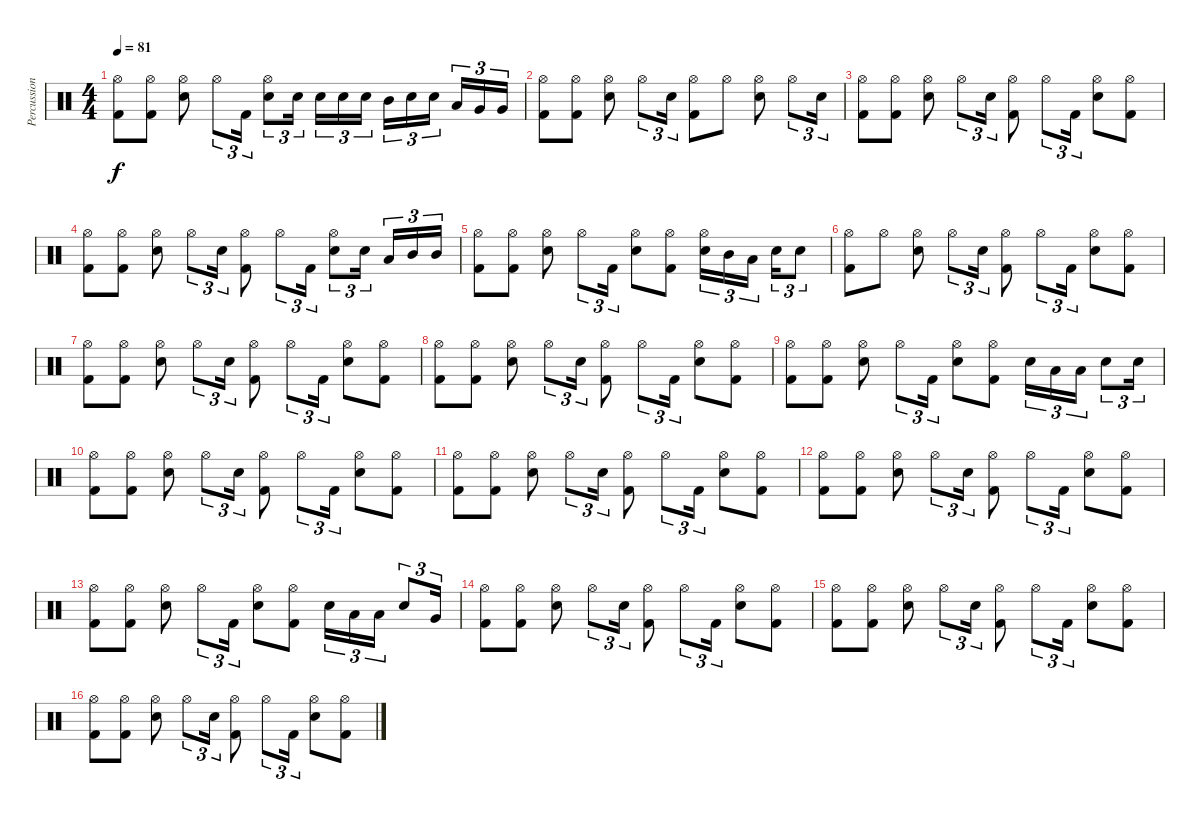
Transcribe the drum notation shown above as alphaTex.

\track ("Percussions" "Percussion") {instrument percussion}
\staff {score}
\articulation defaults
\ts (4 4)
\tempo 81
\clef neutral
\ks c
("Hi-Hat (open)" "Kick (hit) 2").8{dy f} ("Hi-Hat (open)" "Kick (hit) 2").8 ("Hi-Hat (open)" "Snare (hit) 2").8 "Hi-Hat (open)".8{tu (3 2)} "Kick (hit) 2".16{tu (3 2)} ("Hi-Hat (open)" "Snare (hit) 2").8{tu (3 2)} "Snare (hit) 2".16{tu (3 2) beam splitsecondary} "Snare (hit) 2".16{tu (3 2)} "Snare (hit) 2".16{tu (3 2)} "Snare (hit) 2".16{tu (3 2)} "Mid Tom (hit)".16{tu (3 2)} "Snare (hit) 2".16{tu (3 2)} "Snare (hit) 2".16{tu (3 2) beam splitsecondary} "Low Tom (hit)".16{tu (3 2)} "Very Low Tom (hit)".16{tu (3 2)} "Very Low Tom (hit)".16{tu (3 2)} |
("Hi-Hat (open)" "Kick (hit) 2").8 ("Hi-Hat (open)" "Kick (hit) 2").8 ("Hi-Hat (open)" "Snare (hit) 2").8 "Hi-Hat (open)".8{tu (3 2)} "Snare (hit) 2".16{tu (3 2)} ("Hi-Hat (open)" "Kick (hit) 2").8 "Hi-Hat (open)".8 ("Hi-Hat (open)" "Snare (hit) 2").8 "Hi-Hat (open)".8{tu (3 2)} "Snare (hit) 2".16{tu (3 2)} |
("Hi-Hat (open)" "Kick (hit) 2").8 ("Hi-Hat (open)" "Kick (hit) 2").8 ("Hi-Hat (open)" "Snare (hit) 2").8 "Hi-Hat (open)".8{tu (3 2)} "Snare (hit) 2".16{tu (3 2)} ("Hi-Hat (open)" "Kick (hit) 2").8 "Hi-Hat (open)".8{tu (3 2)} "Kick (hit) 2".16{tu (3 2)} ("Hi-Hat (open)" "Snare (hit) 2").8 ("Hi-Hat (open)" "Kick (hit) 2").8 |
("Hi-Hat (open)" "Kick (hit) 2").8 ("Hi-Hat (open)" "Kick (hit) 2").8 ("Hi-Hat (open)" "Snare (hit) 2").8 "Hi-Hat (open)".8{tu (3 2)} "Snare (hit) 2".16{tu (3 2)} ("Hi-Hat (open)" "Kick (hit) 2").8 "Hi-Hat (open)".8{tu (3 2)} "Kick (hit) 2".16{tu (3 2)} ("Hi-Hat (open)" "Snare (hit) 2").8{tu (3 2)} "Snare (hit) 2".16{tu (3 2) beam splitsecondary} "Low Tom (hit)".16{tu (3 2)} "Mid Tom (hit)".16{tu (3 2)} "Mid Tom (hit)".16{tu (3 2)} |
("Hi-Hat (open)" "Kick (hit) 2").8 ("Hi-Hat (open)" "Kick (hit) 2").8 ("Hi-Hat (open)" "Snare (hit) 2").8 "Hi-Hat (open)".8{tu (3 2)} "Kick (hit) 2".16{tu (3 2)} ("Hi-Hat (open)" "Snare (hit) 2").8 ("Hi-Hat (open)" "Kick (hit) 2").8 ("Hi-Hat (open)" "Snare (hit) 2").16{tu (3 2)} "Mid Tom (hit)".16{tu (3 2)} "Low Tom (hit)".16{tu (3 2) beam splitsecondary} "Snare (hit) 2".16{tu (3 2)} "Snare (hit) 2".8{tu (3 2)} |
("Hi-Hat (open)" "Kick (hit) 2").8 "Hi-Hat (open)".8 ("Hi-Hat (open)" "Snare (hit) 2").8 "Hi-Hat (open)".8{tu (3 2)} "Snare (hit) 2".16{tu (3 2)} ("Hi-Hat (open)" "Kick (hit) 2").8 "Hi-Hat (open)".8{tu (3 2)} "Kick (hit) 2".16{tu (3 2)} ("Hi-Hat (open)" "Snare (hit) 2").8 ("Hi-Hat (open)" "Kick (hit) 2").8 |
("Hi-Hat (open)" "Kick (hit) 2").8 ("Hi-Hat (open)" "Kick (hit) 2").8 ("Hi-Hat (open)" "Snare (hit) 2").8 "Hi-Hat (open)".8{tu (3 2)} "Snare (hit) 2".16{tu (3 2)} ("Hi-Hat (open)" "Kick (hit) 2").8 "Hi-Hat (open)".8{tu (3 2)} "Kick (hit) 2".16{tu (3 2)} ("Hi-Hat (open)" "Snare (hit) 2").8 ("Hi-Hat (open)" "Kick (hit) 2").8 |
("Hi-Hat (open)" "Kick (hit) 2").8 ("Hi-Hat (open)" "Kick (hit) 2").8 ("Hi-Hat (open)" "Snare (hit) 2").8 "Hi-Hat (open)".8{tu (3 2)} "Snare (hit) 2".16{tu (3 2)} ("Hi-Hat (open)" "Kick (hit) 2").8 "Hi-Hat (open)".8{tu (3 2)} "Kick (hit) 2".16{tu (3 2)} ("Hi-Hat (open)" "Snare (hit) 2").8 ("Hi-Hat (open)" "Kick (hit) 2").8 |
("Hi-Hat (open)" "Kick (hit) 2").8 ("Hi-Hat (open)" "Kick (hit) 2").8 ("Hi-Hat (open)" "Snare (hit) 2").8 "Hi-Hat (open)".8{tu (3 2)} "Kick (hit) 2".16{tu (3 2)} ("Hi-Hat (open)" "Snare (hit) 2").8 ("Hi-Hat (open)" "Kick (hit) 2").8 "Snare (hit) 2".16{tu (3 2)} "Low Tom (hit)".16{tu (3 2)} "Low Tom (hit)".16{tu (3 2)} "Snare (hit) 2".8{tu (3 2)} "Snare (hit) 2".16{tu (3 2)} |
("Hi-Hat (open)" "Kick (hit) 2").8 ("Hi-Hat (open)" "Kick (hit) 2").8 ("Hi-Hat (open)" "Snare (hit) 2").8 "Hi-Hat (open)".8{tu (3 2)} "Snare (hit) 2".16{tu (3 2)} ("Hi-Hat (open)" "Kick (hit) 2").8 "Hi-Hat (open)".8{tu (3 2)} "Kick (hit) 2".16{tu (3 2)} ("Hi-Hat (open)" "Snare (hit) 2").8 ("Hi-Hat (open)" "Kick (hit) 2").8 |
("Hi-Hat (open)" "Kick (hit) 2").8 ("Hi-Hat (open)" "Kick (hit) 2").8 ("Hi-Hat (open)" "Snare (hit) 2").8 "Hi-Hat (open)".8{tu (3 2)} "Snare (hit) 2".16{tu (3 2)} ("Hi-Hat (open)" "Kick (hit) 2").8 "Hi-Hat (open)".8{tu (3 2)} "Kick (hit) 2".16{tu (3 2)} ("Hi-Hat (open)" "Snare (hit) 2").8 ("Hi-Hat (open)" "Kick (hit) 2").8 |
("Hi-Hat (open)" "Kick (hit) 2").8 ("Hi-Hat (open)" "Kick (hit) 2").8 ("Hi-Hat (open)" "Snare (hit) 2").8 "Hi-Hat (open)".8{tu (3 2)} "Snare (hit) 2".16{tu (3 2)} ("Hi-Hat (open)" "Kick (hit) 2").8 "Hi-Hat (open)".8{tu (3 2)} "Kick (hit) 2".16{tu (3 2)} ("Hi-Hat (open)" "Snare (hit) 2").8 ("Hi-Hat (open)" "Kick (hit) 2").8 |
("Hi-Hat (open)" "Kick (hit) 2").8 ("Hi-Hat (open)" "Kick (hit) 2").8 ("Hi-Hat (open)" "Snare (hit) 2").8 "Hi-Hat (open)".8{tu (3 2)} "Kick (hit) 2".16{tu (3 2)} ("Hi-Hat (open)" "Snare (hit) 2").8 ("Hi-Hat (open)" "Kick (hit) 2").8 "Snare (hit) 2".16{tu (3 2)} "Low Tom (hit)".16{tu (3 2)} "Low Tom (hit)".16{tu (3 2)} "Snare (hit) 2".8{tu (3 2)} "Very Low Tom (hit)".16{tu (3 2)} |
("Hi-Hat (open)" "Kick (hit) 2").8 ("Hi-Hat (open)" "Kick (hit) 2").8 ("Hi-Hat (open)" "Snare (hit) 2").8 "Hi-Hat (open)".8{tu (3 2)} "Snare (hit) 2".16{tu (3 2)} ("Hi-Hat (open)" "Kick (hit) 2").8 "Hi-Hat (open)".8{tu (3 2)} "Kick (hit) 2".16{tu (3 2)} ("Hi-Hat (open)" "Snare (hit) 2").8 ("Hi-Hat (open)" "Kick (hit) 2").8 |
("Hi-Hat (open)" "Kick (hit) 2").8 ("Hi-Hat (open)" "Kick (hit) 2").8 ("Hi-Hat (open)" "Snare (hit) 2").8 "Hi-Hat (open)".8{tu (3 2)} "Snare (hit) 2".16{tu (3 2)} ("Hi-Hat (open)" "Kick (hit) 2").8 "Hi-Hat (open)".8{tu (3 2)} "Kick (hit) 2".16{tu (3 2)} ("Hi-Hat (open)" "Snare (hit) 2").8 ("Hi-Hat (open)" "Kick (hit) 2").8 |
("Hi-Hat (open)" "Kick (hit) 2").8 ("Hi-Hat (open)" "Kick (hit) 2").8 ("Hi-Hat (open)" "Snare (hit) 2").8 "Hi-Hat (open)".8{tu (3 2)} "Snare (hit) 2".16{tu (3 2)} ("Hi-Hat (open)" "Kick (hit) 2").8 "Hi-Hat (open)".8{tu (3 2)} "Kick (hit) 2".16{tu (3 2)} ("Hi-Hat (open)" "Snare (hit) 2").8 ("Hi-Hat (open)" "Kick (hit) 2").8
